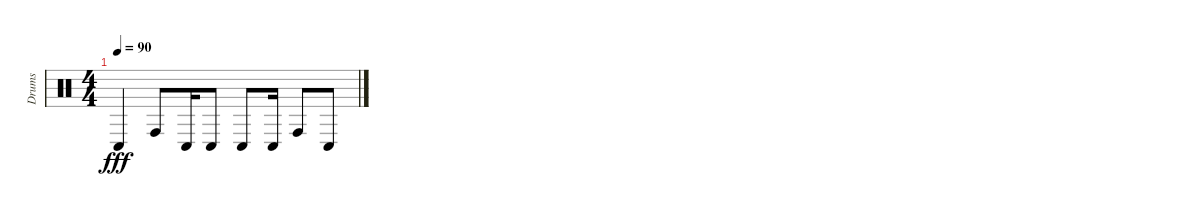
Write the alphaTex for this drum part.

\track ("Drums" "Drums") {instrument percussion}
\staff {score}
\articulation defaults
\ts (4 4)
\tempo 90
\clef neutral
\ks c "Conga low (hit)".4{dy fff} "Conga high (hit)".8 "Conga low (hit)".16 "Conga low (hit)".8 "Conga low (hit)".8 "Conga low (hit)".16 "Conga high (hit)".8 "Conga low (hit)".8
